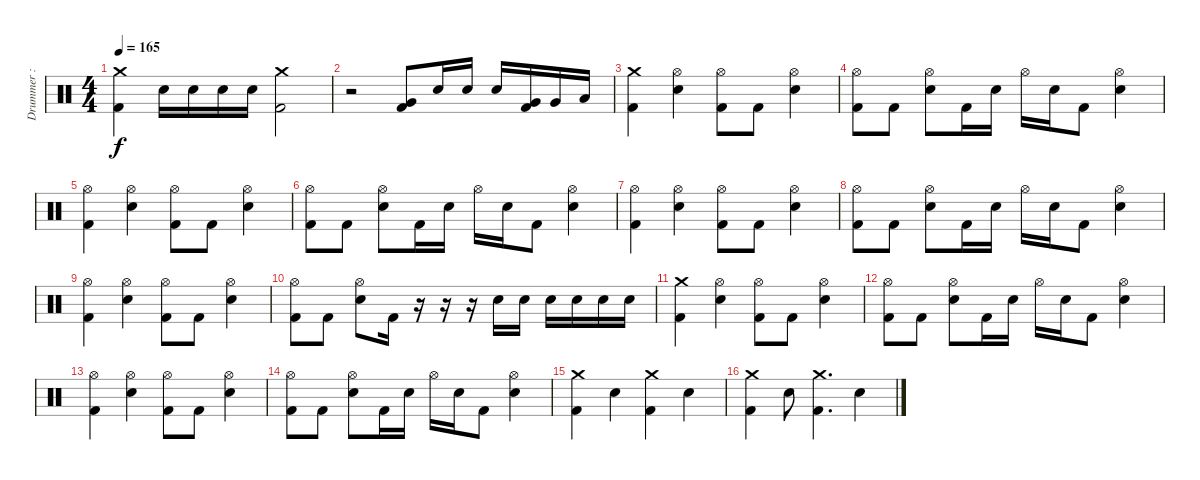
\track ("Drummer : Tainaka Ritsu - Chan" "Drummer : ") {instrument percussion}
\staff {score}
\articulation defaults
\ts (4 4)
\tempo 165
\clef neutral
\ks c
("Crash medium (hit)" "Kick (hit) 2").4{dy f} "Electric Snare (hit)".16 "Electric Snare (hit)".16 "Electric Snare (hit)".16 "Electric Snare (hit)".16 ("Crash medium (hit)" "Kick (hit) 2").2 |
r.2 ("Very Low Tom (hit)" "Kick (hit) 2").8 "Electric Snare (hit)".16 "Electric Snare (hit)".16 "Electric Snare (hit)".16 ("Very Low Tom (hit)" "Kick (hit) 2").16 "Very Low Tom (hit)".16 "Low Floor Tom (hit)".16 |
("Crash medium (hit)" "Kick (hit) 2").4 ("Hi-Hat (open)" "Electric Snare (hit)").4 ("Hi-Hat (open)" "Kick (hit) 2").8 "Kick (hit) 2".8 ("Hi-Hat (open)" "Electric Snare (hit)").4 |
("Hi-Hat (open)" "Kick (hit) 2").8 "Kick (hit) 2".8 ("Hi-Hat (open)" "Electric Snare (hit)").8 "Kick (hit) 2".16 "Electric Snare (hit)".16 "Hi-Hat (open)".16 "Electric Snare (hit)".16 "Kick (hit) 2".8 ("Hi-Hat (open)" "Electric Snare (hit)").4 |
("Hi-Hat (open)" "Kick (hit) 2").4 ("Hi-Hat (open)" "Electric Snare (hit)").4 ("Hi-Hat (open)" "Kick (hit) 2").8 "Kick (hit) 2".8 ("Hi-Hat (open)" "Electric Snare (hit)").4 |
("Hi-Hat (open)" "Kick (hit) 2").8 "Kick (hit) 2".8 ("Hi-Hat (open)" "Electric Snare (hit)").8 "Kick (hit) 2".16 "Electric Snare (hit)".16 "Hi-Hat (open)".16 "Electric Snare (hit)".16 "Kick (hit) 2".8 ("Hi-Hat (open)" "Electric Snare (hit)").4 |
("Hi-Hat (open)" "Kick (hit) 2").4 ("Hi-Hat (open)" "Electric Snare (hit)").4 ("Hi-Hat (open)" "Kick (hit) 2").8 "Kick (hit) 2".8 ("Hi-Hat (open)" "Electric Snare (hit)").4 |
("Hi-Hat (open)" "Kick (hit) 2").8 "Kick (hit) 2".8 ("Hi-Hat (open)" "Electric Snare (hit)").8 "Kick (hit) 2".16 "Electric Snare (hit)".16 "Hi-Hat (open)".16 "Electric Snare (hit)".16 "Kick (hit) 2".8 ("Hi-Hat (open)" "Electric Snare (hit)").4 |
("Hi-Hat (open)" "Kick (hit) 2").4 ("Hi-Hat (open)" "Electric Snare (hit)").4 ("Hi-Hat (open)" "Kick (hit) 2").8 "Kick (hit) 2".8 ("Hi-Hat (open)" "Electric Snare (hit)").4 |
("Hi-Hat (open)" "Kick (hit) 2").8 "Kick (hit) 2".8 ("Hi-Hat (open)" "Electric Snare (hit)").8 "Kick (hit) 2".16 r.16 r.16 r.16 "Electric Snare (hit)".16 "Electric Snare (hit)".16 "Electric Snare (hit)".16 "Electric Snare (hit)".16 "Electric Snare (hit)".16 "Electric Snare (hit)".16 |
("Crash medium (hit)" "Kick (hit) 2").4 ("Hi-Hat (open)" "Electric Snare (hit)").4 ("Hi-Hat (open)" "Kick (hit) 2").8 "Kick (hit) 2".8 ("Hi-Hat (open)" "Electric Snare (hit)").4 |
("Hi-Hat (open)" "Kick (hit) 2").8 "Kick (hit) 2".8 ("Hi-Hat (open)" "Electric Snare (hit)").8 "Kick (hit) 2".16 "Electric Snare (hit)".16 "Hi-Hat (open)".16 "Electric Snare (hit)".16 "Kick (hit) 2".8 ("Hi-Hat (open)" "Electric Snare (hit)").4 |
("Hi-Hat (open)" "Kick (hit) 2").4 ("Hi-Hat (open)" "Electric Snare (hit)").4 ("Hi-Hat (open)" "Kick (hit) 2").8 "Kick (hit) 2".8 ("Hi-Hat (open)" "Electric Snare (hit)").4 |
("Hi-Hat (open)" "Kick (hit) 2").8 "Kick (hit) 2".8 ("Hi-Hat (open)" "Electric Snare (hit)").8 "Kick (hit) 2".16 "Electric Snare (hit)".16 "Hi-Hat (open)".16 "Electric Snare (hit)".16 "Kick (hit) 2".8 ("Hi-Hat (open)" "Electric Snare (hit)").4 |
("Crash medium (hit)" "Kick (hit) 2").4 "Electric Snare (hit)".4 ("Crash medium (hit)" "Kick (hit) 2").4 "Electric Snare (hit)".4 |
("Crash medium (hit)" "Kick (hit) 2").4 "Electric Snare (hit)".8 ("Crash medium (hit)" "Kick (hit) 2").4{d} "Electric Snare (hit)".4
